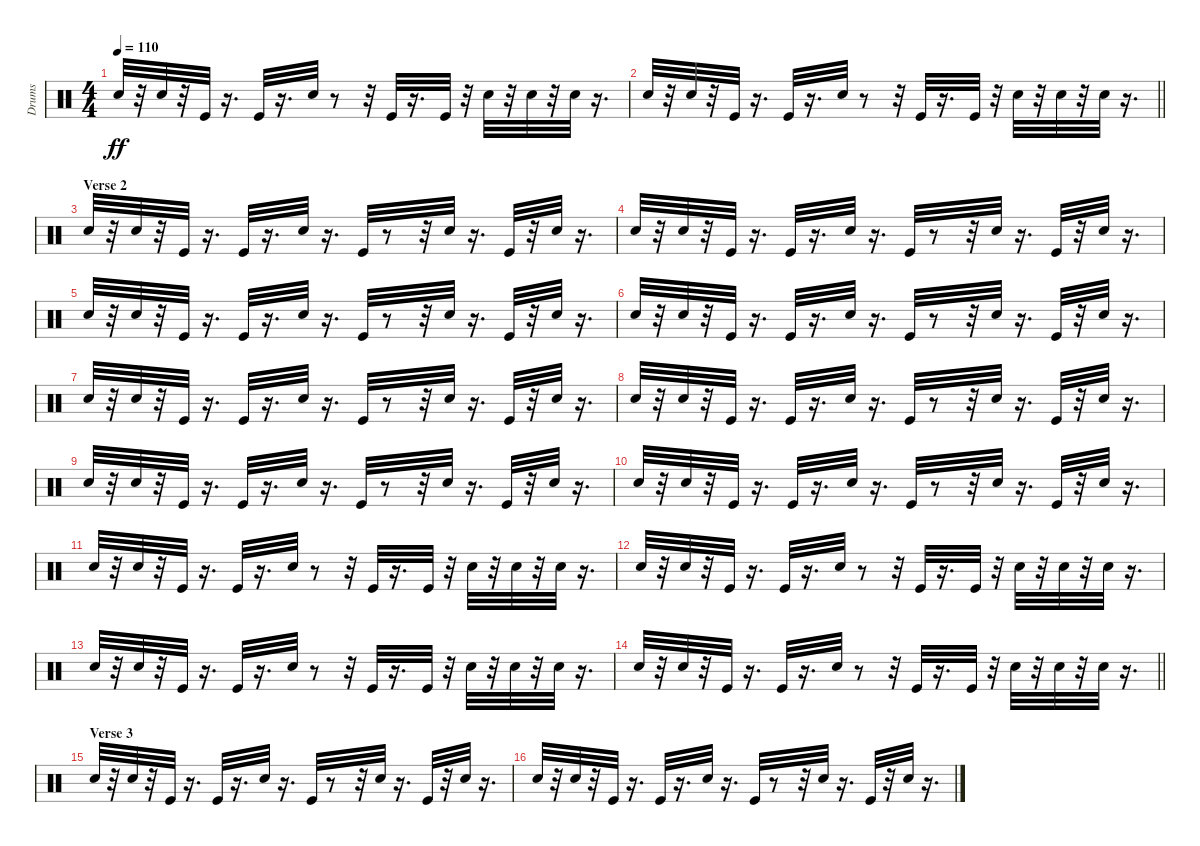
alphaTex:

\track ("Drums" "Drums") {instrument percussion}
\staff {score}
\articulation defaults
\ts (4 4)
\tempo 110
\clef neutral
\ks c "Snare (hit) 2".32{dy ff}
r.32 "Snare (hit) 2".32 r.32 "Kick (hit)".32 r.16{d} "Kick (hit)".32 r.16{d} "Snare (hit) 2".32 r.8 r.32 "Kick (hit)".32 r.16{d} "Kick (hit)".32 r.32 "Snare (hit) 2".32 r.32 "Snare (hit) 2".32 r.32 "Snare (hit) 2".32 r.16{d} |
\barLineRight lightlight "Snare (hit) 2".32
r.32 "Snare (hit) 2".32 r.32 "Kick (hit)".32 r.16{d} "Kick (hit)".32 r.16{d} "Snare (hit) 2".32 r.8 r.32 "Kick (hit)".32 r.16{d} "Kick (hit)".32 r.32 "Snare (hit) 2".32 r.32 "Snare (hit) 2".32 r.32 "Snare (hit) 2".32 r.16{d} |
\section ("" "Verse 2")
"Snare (hit) 2".32 r.32 "Snare (hit) 2".32 r.32 "Kick (hit)".32 r.16{d} "Kick (hit)".32 r.16{d} "Snare (hit) 2".32 r.16{d} "Kick (hit)".32 r.8 r.32 "Snare (hit) 2".32 r.16{d} "Kick (hit)".32 r.32 "Snare (hit) 2".32 r.16{d} |
"Snare (hit) 2".32 r.32 "Snare (hit) 2".32 r.32 "Kick (hit)".32 r.16{d} "Kick (hit)".32 r.16{d} "Snare (hit) 2".32 r.16{d} "Kick (hit)".32 r.8 r.32 "Snare (hit) 2".32 r.16{d} "Kick (hit)".32 r.32 "Snare (hit) 2".32 r.16{d} |
"Snare (hit) 2".32 r.32 "Snare (hit) 2".32 r.32 "Kick (hit)".32 r.16{d} "Kick (hit)".32 r.16{d} "Snare (hit) 2".32 r.16{d} "Kick (hit)".32 r.8 r.32 "Snare (hit) 2".32 r.16{d} "Kick (hit)".32 r.32 "Snare (hit) 2".32 r.16{d} |
"Snare (hit) 2".32 r.32 "Snare (hit) 2".32 r.32 "Kick (hit)".32 r.16{d} "Kick (hit)".32 r.16{d} "Snare (hit) 2".32 r.16{d} "Kick (hit)".32 r.8 r.32 "Snare (hit) 2".32 r.16{d} "Kick (hit)".32 r.32 "Snare (hit) 2".32 r.16{d} |
"Snare (hit) 2".32 r.32 "Snare (hit) 2".32 r.32 "Kick (hit)".32 r.16{d} "Kick (hit)".32 r.16{d} "Snare (hit) 2".32 r.16{d} "Kick (hit)".32 r.8 r.32 "Snare (hit) 2".32 r.16{d} "Kick (hit)".32 r.32 "Snare (hit) 2".32 r.16{d} |
"Snare (hit) 2".32 r.32 "Snare (hit) 2".32 r.32 "Kick (hit)".32 r.16{d} "Kick (hit)".32 r.16{d} "Snare (hit) 2".32 r.16{d} "Kick (hit)".32 r.8 r.32 "Snare (hit) 2".32 r.16{d} "Kick (hit)".32 r.32 "Snare (hit) 2".32 r.16{d} |
"Snare (hit) 2".32 r.32 "Snare (hit) 2".32 r.32 "Kick (hit)".32 r.16{d} "Kick (hit)".32 r.16{d} "Snare (hit) 2".32 r.16{d} "Kick (hit)".32 r.8 r.32 "Snare (hit) 2".32 r.16{d} "Kick (hit)".32 r.32 "Snare (hit) 2".32 r.16{d} |
"Snare (hit) 2".32 r.32 "Snare (hit) 2".32 r.32 "Kick (hit)".32 r.16{d} "Kick (hit)".32 r.16{d} "Snare (hit) 2".32 r.16{d} "Kick (hit)".32 r.8 r.32 "Snare (hit) 2".32 r.16{d} "Kick (hit)".32 r.32 "Snare (hit) 2".32 r.16{d} |
"Snare (hit) 2".32 r.32 "Snare (hit) 2".32 r.32 "Kick (hit)".32 r.16{d} "Kick (hit)".32 r.16{d} "Snare (hit) 2".32 r.8 r.32 "Kick (hit)".32 r.16{d} "Kick (hit)".32 r.32 "Snare (hit) 2".32 r.32 "Snare (hit) 2".32 r.32 "Snare (hit) 2".32 r.16{d} |
"Snare (hit) 2".32 r.32 "Snare (hit) 2".32 r.32 "Kick (hit)".32 r.16{d} "Kick (hit)".32 r.16{d} "Snare (hit) 2".32 r.8 r.32 "Kick (hit)".32 r.16{d} "Kick (hit)".32 r.32 "Snare (hit) 2".32 r.32 "Snare (hit) 2".32 r.32 "Snare (hit) 2".32 r.16{d} |
"Snare (hit) 2".32 r.32 "Snare (hit) 2".32 r.32 "Kick (hit)".32 r.16{d} "Kick (hit)".32 r.16{d} "Snare (hit) 2".32 r.8 r.32 "Kick (hit)".32 r.16{d} "Kick (hit)".32 r.32 "Snare (hit) 2".32 r.32 "Snare (hit) 2".32 r.32 "Snare (hit) 2".32 r.16{d} |
\barLineRight lightlight "Snare (hit) 2".32
r.32 "Snare (hit) 2".32 r.32 "Kick (hit)".32 r.16{d} "Kick (hit)".32 r.16{d} "Snare (hit) 2".32 r.8 r.32 "Kick (hit)".32 r.16{d} "Kick (hit)".32 r.32 "Snare (hit) 2".32 r.32 "Snare (hit) 2".32 r.32 "Snare (hit) 2".32 r.16{d} |
\section ("" "Verse 3")
"Snare (hit) 2".32 r.32 "Snare (hit) 2".32 r.32 "Kick (hit)".32 r.16{d} "Kick (hit)".32 r.16{d} "Snare (hit) 2".32 r.16{d} "Kick (hit)".32 r.8 r.32 "Snare (hit) 2".32 r.16{d} "Kick (hit)".32 r.32 "Snare (hit) 2".32 r.16{d} |
"Snare (hit) 2".32 r.32 "Snare (hit) 2".32 r.32 "Kick (hit)".32 r.16{d} "Kick (hit)".32 r.16{d} "Snare (hit) 2".32 r.16{d} "Kick (hit)".32 r.8 r.32 "Snare (hit) 2".32 r.16{d} "Kick (hit)".32 r.32 "Snare (hit) 2".32 r.16{d}
